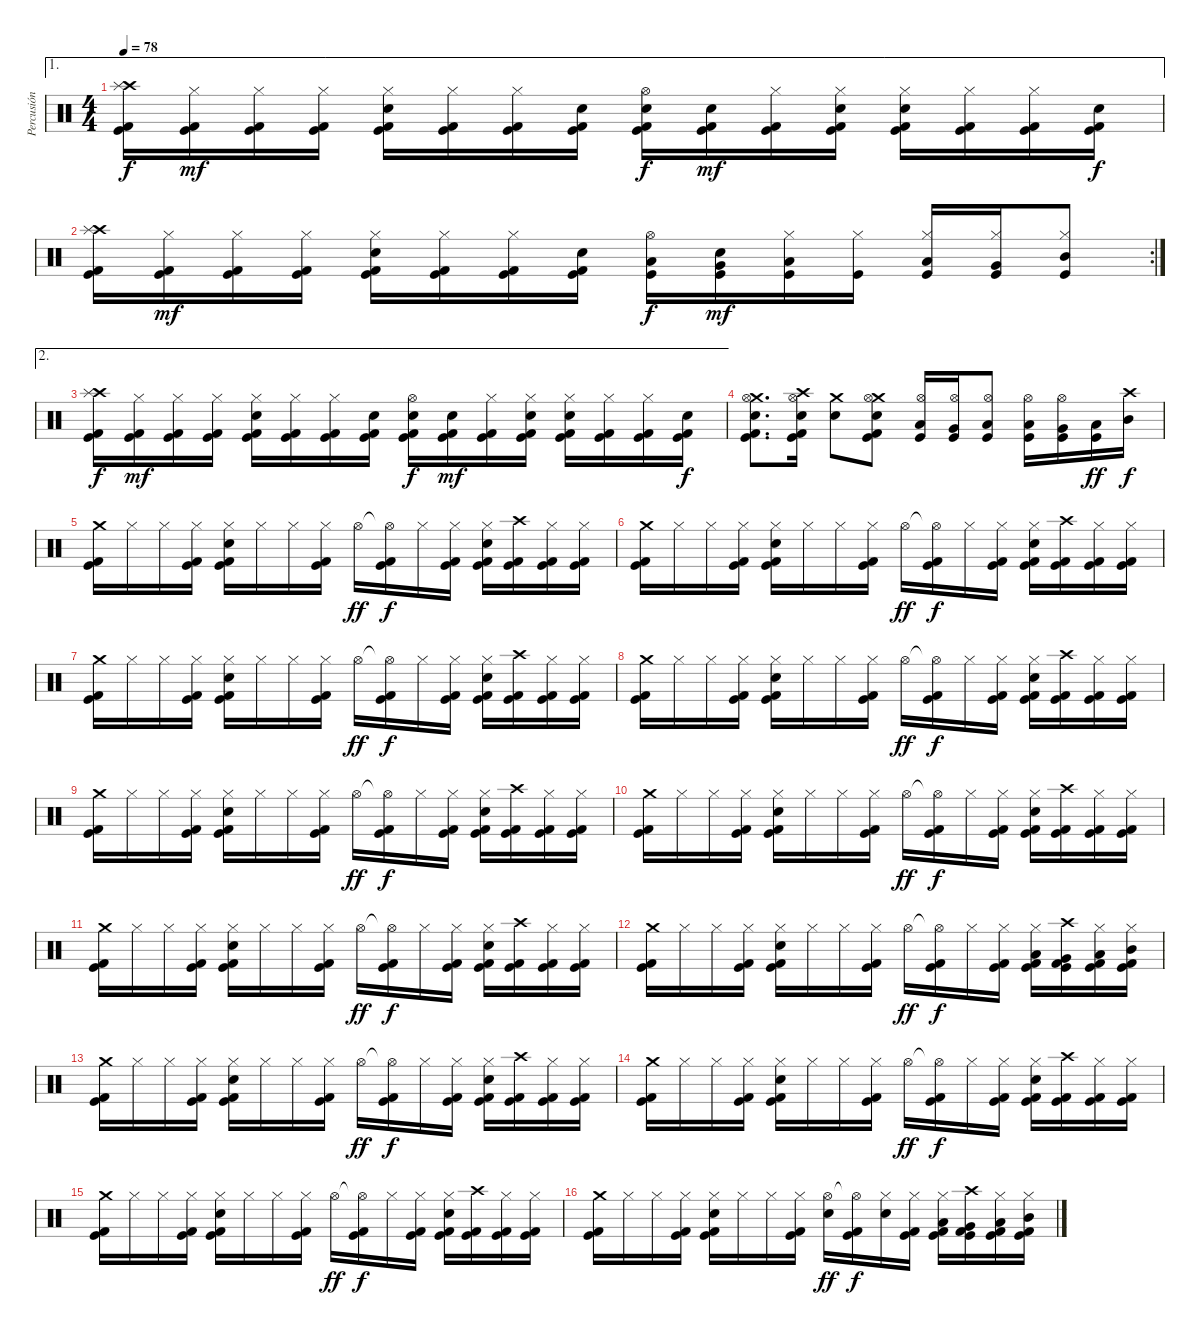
\track ("Percusión" "Percusión") {instrument percussion}
\staff {score}
\articulation defaults
\ae 1
\ts (4 4)
\tempo 78
\clef neutral
\ks c
("Crash high (hit)" "Splash (hit)" "Kick (hit) 2" "Kick (hit)").16{dy f} ("Hi-Hat (closed)" "Kick (hit) 2" "Kick (hit)").16{dy mf} ("Hi-Hat (closed)" "Kick (hit) 2" "Kick (hit)").16 ("Hi-Hat (closed)" "Kick (hit) 2" "Kick (hit)").16 ("Hi-Hat (closed)" "Snare (hit) 2" "Kick (hit) 2" "Kick (hit)").16 ("Hi-Hat (closed)" "Kick (hit) 2" "Kick (hit)").16 ("Hi-Hat (closed)" "Kick (hit) 2" "Kick (hit)").16 ("Snare (hit)" "Kick (hit) 2" "Kick (hit)").16 ("Hi-Hat (open)" "Snare (hit) 2" "Kick (hit) 2" "Kick (hit)").16{dy f} ("Snare (hit)" "Kick (hit) 2" "Kick (hit)").16{dy mf} ("Hi-Hat (closed)" "Kick (hit) 2" "Kick (hit)").16 ("Hi-Hat (closed)" "Snare (hit) 2" "Kick (hit) 2" "Kick (hit)").16 ("Hi-Hat (closed)" "Snare (hit) 2" "Kick (hit) 2" "Kick (hit)").16 ("Hi-Hat (closed)" "Kick (hit) 2" "Kick (hit)").16 ("Hi-Hat (closed)" "Kick (hit) 2" "Kick (hit)").16 ("Snare (hit) 2" "Kick (hit) 2" "Kick (hit)").16{dy f} |
\rc 2
("Crash high (hit)" "Splash (hit)" "Kick (hit) 2" "Kick (hit)").16 ("Hi-Hat (closed)" "Kick (hit) 2" "Kick (hit)").16{dy mf} ("Hi-Hat (closed)" "Kick (hit) 2" "Kick (hit)").16 ("Hi-Hat (closed)" "Kick (hit) 2" "Kick (hit)").16 ("Hi-Hat (closed)" "Snare (hit) 2" "Kick (hit) 2" "Kick (hit)").16 ("Hi-Hat (closed)" "Kick (hit) 2" "Kick (hit)").16 ("Hi-Hat (closed)" "Kick (hit) 2" "Kick (hit)").16 ("Snare (hit)" "Kick (hit) 2" "Kick (hit)").16 ("Hi-Hat (open)" "Low Floor Tom (hit)" "Kick (hit)").16{dy f} ("Snare (hit)" "Very Low Tom (hit)" "Kick (hit)").16{dy mf} ("Hi-Hat (closed)" "Low Tom (hit)" "Kick (hit)").16 ("Hi-Hat (closed)" "Kick (hit)").16 ("Hi-Hat (closed)" "Low Floor Tom (hit)" "Kick (hit)").16 ("Hi-Hat (closed)" "Very Low Tom (hit)" "Kick (hit)").16 ("Hi-Hat (closed)" "Mid Tom (hit)" "Kick (hit)").8 |
\ae 2
("Crash high (hit)" "Splash (hit)" "Kick (hit) 2" "Kick (hit)").16{dy f} ("Hi-Hat (closed)" "Kick (hit) 2" "Kick (hit)").16{dy mf} ("Hi-Hat (closed)" "Kick (hit) 2" "Kick (hit)").16 ("Hi-Hat (closed)" "Kick (hit) 2" "Kick (hit)").16 ("Hi-Hat (closed)" "Snare (hit) 2" "Kick (hit) 2" "Kick (hit)").16 ("Hi-Hat (closed)" "Kick (hit) 2" "Kick (hit)").16 ("Hi-Hat (closed)" "Kick (hit) 2" "Kick (hit)").16 ("Snare (hit)" "Kick (hit) 2" "Kick (hit)").16 ("Hi-Hat (open)" "Snare (hit) 2" "Kick (hit) 2" "Kick (hit)").16{dy f} ("Snare (hit)" "Kick (hit) 2" "Kick (hit)").16{dy mf} ("Hi-Hat (closed)" "Kick (hit) 2" "Kick (hit)").16 ("Hi-Hat (closed)" "Snare (hit) 2" "Kick (hit) 2" "Kick (hit)").16 ("Hi-Hat (closed)" "Snare (hit) 2" "Kick (hit) 2" "Kick (hit)").16 ("Hi-Hat (closed)" "Kick (hit) 2" "Kick (hit)").16 ("Hi-Hat (closed)" "Kick (hit) 2" "Kick (hit)").16 ("Snare (hit) 2" "Kick (hit) 2" "Kick (hit)").16{dy f} |
("Crash medium (hit)" "Hi-Hat (open)" "Snare (hit) 2" "Kick (hit) 2" "Kick (hit)").8{d} ("Crash high (hit)" "Hi-Hat (open)" "Snare (hit) 2" "Kick (hit) 2" "Kick (hit)").16 ("Crash medium (hit)" "Snare (hit)").8 ("Crash medium (hit)" "Hi-Hat (open)" "Snare (hit) 2" "Kick (hit) 2" "Kick (hit)").8 ("Hi-Hat (open)" "Low Floor Tom (hit)" "Kick (hit)").16 ("Hi-Hat (open)" "Very Low Tom (hit)" "Kick (hit)").16 ("Hi-Hat (open)" "Low Tom (hit)" "Kick (hit)").8 ("Hi-Hat (open)" "Low Floor Tom (hit)" "Kick (hit)").16 ("Hi-Hat (open)" "Very Low Tom (hit)" "Kick (hit)").16 ("Low Tom (hit)" "Kick (hit)").16{dy ff} ("Crash high (hit)" "Mid Tom (hit)").16{dy f} |
("Crash medium (hit)" "Kick (hit) 2" "Kick (hit)").16 "Hi-Hat (closed)".16 "Hi-Hat (closed)".16 ("Hi-Hat (closed)" "Kick (hit)" "Kick (hit) 2").16 ("Hi-Hat (closed)" "Snare (hit) 2" "Kick (hit)" "Kick (hit) 2").16 "Hi-Hat (closed)".16 "Hi-Hat (closed)".16 ("Hi-Hat (closed)" "Kick (hit)" "Kick (hit) 2").16 "Hi-Hat (open)".16{dy ff} ("Hi-Hat (open)"{t} "Kick (hit)" "Kick (hit) 2").16{dy f} "Hi-Hat (closed)".16 ("Hi-Hat (closed)" "Kick (hit) 2" "Kick (hit)").16 ("Hi-Hat (closed)" "Snare (hit) 2" "Kick (hit) 2" "Kick (hit)").16 ("Crash high (hit)" "Kick (hit) 2" "Kick (hit)").16 ("Hi-Hat (closed)" "Kick (hit) 2" "Kick (hit)").16 ("Hi-Hat (closed)" "Kick (hit) 2" "Kick (hit)").16 |
("Crash medium (hit)" "Kick (hit) 2" "Kick (hit)").16 "Hi-Hat (closed)".16 "Hi-Hat (closed)".16 ("Hi-Hat (closed)" "Kick (hit)" "Kick (hit) 2").16 ("Hi-Hat (closed)" "Snare (hit) 2" "Kick (hit)" "Kick (hit) 2").16 "Hi-Hat (closed)".16 "Hi-Hat (closed)".16 ("Hi-Hat (closed)" "Kick (hit)" "Kick (hit) 2").16 "Hi-Hat (open)".16{dy ff} ("Hi-Hat (open)"{t} "Kick (hit)" "Kick (hit) 2").16{dy f} "Hi-Hat (closed)".16 ("Hi-Hat (closed)" "Kick (hit) 2" "Kick (hit)").16 ("Hi-Hat (closed)" "Snare (hit) 2" "Kick (hit) 2" "Kick (hit)").16 ("Crash high (hit)" "Kick (hit) 2" "Kick (hit)").16 ("Hi-Hat (closed)" "Kick (hit) 2" "Kick (hit)").16 ("Hi-Hat (closed)" "Kick (hit) 2" "Kick (hit)").16 |
("Crash medium (hit)" "Kick (hit) 2" "Kick (hit)").16 "Hi-Hat (closed)".16 "Hi-Hat (closed)".16 ("Hi-Hat (closed)" "Kick (hit)" "Kick (hit) 2").16 ("Hi-Hat (closed)" "Snare (hit) 2" "Kick (hit)" "Kick (hit) 2").16 "Hi-Hat (closed)".16 "Hi-Hat (closed)".16 ("Hi-Hat (closed)" "Kick (hit)" "Kick (hit) 2").16 "Hi-Hat (open)".16{dy ff} ("Hi-Hat (open)"{t} "Kick (hit)" "Kick (hit) 2").16{dy f} "Hi-Hat (closed)".16 ("Hi-Hat (closed)" "Kick (hit) 2" "Kick (hit)").16 ("Hi-Hat (closed)" "Snare (hit) 2" "Kick (hit) 2" "Kick (hit)").16 ("Crash high (hit)" "Kick (hit) 2" "Kick (hit)").16 ("Hi-Hat (closed)" "Kick (hit) 2" "Kick (hit)").16 ("Hi-Hat (closed)" "Kick (hit) 2" "Kick (hit)").16 |
("Crash medium (hit)" "Kick (hit) 2" "Kick (hit)").16 "Hi-Hat (closed)".16 "Hi-Hat (closed)".16 ("Hi-Hat (closed)" "Kick (hit)" "Kick (hit) 2").16 ("Hi-Hat (closed)" "Snare (hit) 2" "Kick (hit)" "Kick (hit) 2").16 "Hi-Hat (closed)".16 "Hi-Hat (closed)".16 ("Hi-Hat (closed)" "Kick (hit)" "Kick (hit) 2").16 "Hi-Hat (open)".16{dy ff} ("Hi-Hat (open)"{t} "Kick (hit)" "Kick (hit) 2").16{dy f} "Hi-Hat (closed)".16 ("Hi-Hat (closed)" "Kick (hit) 2" "Kick (hit)").16 ("Hi-Hat (closed)" "Snare (hit) 2" "Kick (hit) 2" "Kick (hit)").16 ("Crash high (hit)" "Kick (hit) 2" "Kick (hit)").16 ("Hi-Hat (closed)" "Kick (hit) 2" "Kick (hit)").16 ("Hi-Hat (closed)" "Kick (hit) 2" "Kick (hit)").16 |
("Crash medium (hit)" "Kick (hit) 2" "Kick (hit)").16 "Hi-Hat (closed)".16 "Hi-Hat (closed)".16 ("Hi-Hat (closed)" "Kick (hit)" "Kick (hit) 2").16 ("Hi-Hat (closed)" "Snare (hit) 2" "Kick (hit)" "Kick (hit) 2").16 "Hi-Hat (closed)".16 "Hi-Hat (closed)".16 ("Hi-Hat (closed)" "Kick (hit)" "Kick (hit) 2").16 "Hi-Hat (open)".16{dy ff} ("Hi-Hat (open)"{t} "Kick (hit)" "Kick (hit) 2").16{dy f} "Hi-Hat (closed)".16 ("Hi-Hat (closed)" "Kick (hit) 2" "Kick (hit)").16 ("Hi-Hat (closed)" "Snare (hit) 2" "Kick (hit) 2" "Kick (hit)").16 ("Crash high (hit)" "Kick (hit) 2" "Kick (hit)").16 ("Hi-Hat (closed)" "Kick (hit) 2" "Kick (hit)").16 ("Hi-Hat (closed)" "Kick (hit) 2" "Kick (hit)").16 |
("Crash medium (hit)" "Kick (hit) 2" "Kick (hit)").16 "Hi-Hat (closed)".16 "Hi-Hat (closed)".16 ("Hi-Hat (closed)" "Kick (hit)" "Kick (hit) 2").16 ("Hi-Hat (closed)" "Snare (hit) 2" "Kick (hit)" "Kick (hit) 2").16 "Hi-Hat (closed)".16 "Hi-Hat (closed)".16 ("Hi-Hat (closed)" "Kick (hit)" "Kick (hit) 2").16 "Hi-Hat (open)".16{dy ff} ("Hi-Hat (open)"{t} "Kick (hit)" "Kick (hit) 2").16{dy f} "Hi-Hat (closed)".16 ("Hi-Hat (closed)" "Kick (hit) 2" "Kick (hit)").16 ("Hi-Hat (closed)" "Snare (hit) 2" "Kick (hit) 2" "Kick (hit)").16 ("Crash high (hit)" "Kick (hit) 2" "Kick (hit)").16 ("Hi-Hat (closed)" "Kick (hit) 2" "Kick (hit)").16 ("Hi-Hat (closed)" "Kick (hit) 2" "Kick (hit)").16 |
("Crash medium (hit)" "Kick (hit) 2" "Kick (hit)").16 "Hi-Hat (closed)".16 "Hi-Hat (closed)".16 ("Hi-Hat (closed)" "Kick (hit)" "Kick (hit) 2").16 ("Hi-Hat (closed)" "Snare (hit) 2" "Kick (hit)" "Kick (hit) 2").16 "Hi-Hat (closed)".16 "Hi-Hat (closed)".16 ("Hi-Hat (closed)" "Kick (hit)" "Kick (hit) 2").16 "Hi-Hat (open)".16{dy ff} ("Hi-Hat (open)"{t} "Kick (hit)" "Kick (hit) 2").16{dy f} "Hi-Hat (closed)".16 ("Hi-Hat (closed)" "Kick (hit) 2" "Kick (hit)").16 ("Hi-Hat (closed)" "Snare (hit) 2" "Kick (hit) 2" "Kick (hit)").16 ("Crash high (hit)" "Kick (hit) 2" "Kick (hit)").16 ("Hi-Hat (closed)" "Kick (hit) 2" "Kick (hit)").16 ("Hi-Hat (closed)" "Kick (hit) 2" "Kick (hit)").16 |
("Crash medium (hit)" "Kick (hit) 2" "Kick (hit)").16 "Hi-Hat (closed)".16 "Hi-Hat (closed)".16 ("Hi-Hat (closed)" "Kick (hit)" "Kick (hit) 2").16 ("Hi-Hat (closed)" "Snare (hit) 2" "Kick (hit)" "Kick (hit) 2").16 "Hi-Hat (closed)".16 "Hi-Hat (closed)".16 ("Hi-Hat (closed)" "Kick (hit)" "Kick (hit) 2").16 "Hi-Hat (open)".16{dy ff} ("Hi-Hat (open)"{t} "Kick (hit)" "Kick (hit) 2").16{dy f} "Hi-Hat (closed)".16 ("Hi-Hat (closed)" "Kick (hit) 2" "Kick (hit)").16 ("Hi-Hat (closed)" "Low Floor Tom (hit)" "Kick (hit) 2" "Kick (hit)").16 ("Crash high (hit)" "Very Low Tom (hit)" "Kick (hit) 2" "Kick (hit)").16 ("Hi-Hat (closed)" "Low Tom (hit)" "Kick (hit) 2" "Kick (hit)").16 ("Hi-Hat (closed)" "Mid Tom (hit)" "Kick (hit) 2" "Kick (hit)").16 |
("Crash medium (hit)" "Kick (hit) 2" "Kick (hit)").16 "Hi-Hat (closed)".16 "Hi-Hat (closed)".16 ("Hi-Hat (closed)" "Kick (hit)" "Kick (hit) 2").16 ("Hi-Hat (closed)" "Snare (hit) 2" "Kick (hit)" "Kick (hit) 2").16 "Hi-Hat (closed)".16 "Hi-Hat (closed)".16 ("Hi-Hat (closed)" "Kick (hit)" "Kick (hit) 2").16 "Hi-Hat (open)".16{dy ff} ("Hi-Hat (open)"{t} "Kick (hit)" "Kick (hit) 2").16{dy f} "Hi-Hat (closed)".16 ("Hi-Hat (closed)" "Kick (hit) 2" "Kick (hit)").16 ("Hi-Hat (closed)" "Snare (hit) 2" "Kick (hit) 2" "Kick (hit)").16 ("Crash high (hit)" "Kick (hit) 2" "Kick (hit)").16 ("Hi-Hat (closed)" "Kick (hit) 2" "Kick (hit)").16 ("Hi-Hat (closed)" "Kick (hit) 2" "Kick (hit)").16 |
("Crash medium (hit)" "Kick (hit) 2" "Kick (hit)").16 "Hi-Hat (closed)".16 "Hi-Hat (closed)".16 ("Hi-Hat (closed)" "Kick (hit)" "Kick (hit) 2").16 ("Hi-Hat (closed)" "Snare (hit) 2" "Kick (hit)" "Kick (hit) 2").16 "Hi-Hat (closed)".16 "Hi-Hat (closed)".16 ("Hi-Hat (closed)" "Kick (hit)" "Kick (hit) 2").16 "Hi-Hat (open)".16{dy ff} ("Hi-Hat (open)"{t} "Kick (hit)" "Kick (hit) 2").16{dy f} "Hi-Hat (closed)".16 ("Hi-Hat (closed)" "Kick (hit) 2" "Kick (hit)").16 ("Hi-Hat (closed)" "Snare (hit) 2" "Kick (hit) 2" "Kick (hit)").16 ("Crash high (hit)" "Kick (hit) 2" "Kick (hit)").16 ("Hi-Hat (closed)" "Kick (hit) 2" "Kick (hit)").16 ("Hi-Hat (closed)" "Kick (hit) 2" "Kick (hit)").16 |
("Crash medium (hit)" "Kick (hit) 2" "Kick (hit)").16 "Hi-Hat (closed)".16 "Hi-Hat (closed)".16 ("Hi-Hat (closed)" "Kick (hit)" "Kick (hit) 2").16 ("Hi-Hat (closed)" "Snare (hit) 2" "Kick (hit)" "Kick (hit) 2").16 "Hi-Hat (closed)".16 "Hi-Hat (closed)".16 ("Hi-Hat (closed)" "Kick (hit)" "Kick (hit) 2").16 "Hi-Hat (open)".16{dy ff} ("Hi-Hat (open)"{t} "Kick (hit)" "Kick (hit) 2").16{dy f} "Hi-Hat (closed)".16 ("Hi-Hat (closed)" "Kick (hit) 2" "Kick (hit)").16 ("Hi-Hat (closed)" "Snare (hit) 2" "Kick (hit) 2" "Kick (hit)").16 ("Crash high (hit)" "Kick (hit) 2" "Kick (hit)").16 ("Hi-Hat (closed)" "Kick (hit) 2" "Kick (hit)").16 ("Hi-Hat (closed)" "Kick (hit) 2" "Kick (hit)").16 |
("Crash medium (hit)" "Kick (hit) 2" "Kick (hit)").16 "Hi-Hat (closed)".16 "Hi-Hat (closed)".16 ("Hi-Hat (closed)" "Kick (hit)" "Kick (hit) 2").16 ("Hi-Hat (closed)" "Snare (hit) 2" "Kick (hit)" "Kick (hit) 2").16 "Hi-Hat (closed)".16 "Hi-Hat (closed)".16 ("Hi-Hat (closed)" "Kick (hit)" "Kick (hit) 2").16 ("Hi-Hat (open)" "Snare (hit) 2").16{dy ff} ("Hi-Hat (open)"{t} "Kick (hit)" "Kick (hit) 2").16{dy f} ("Hi-Hat (closed)" "Snare (hit) 2").16 ("Hi-Hat (closed)" "Kick (hit) 2" "Kick (hit)").16 ("Hi-Hat (closed)" "Low Floor Tom (hit)" "Kick (hit) 2" "Kick (hit)").16 ("Crash high (hit)" "Very Low Tom (hit)" "Kick (hit) 2" "Kick (hit)").16 ("Hi-Hat (closed)" "Low Tom (hit)" "Kick (hit) 2" "Kick (hit)").16 ("Hi-Hat (closed)" "Mid Tom (hit)" "Kick (hit) 2" "Kick (hit)").16
